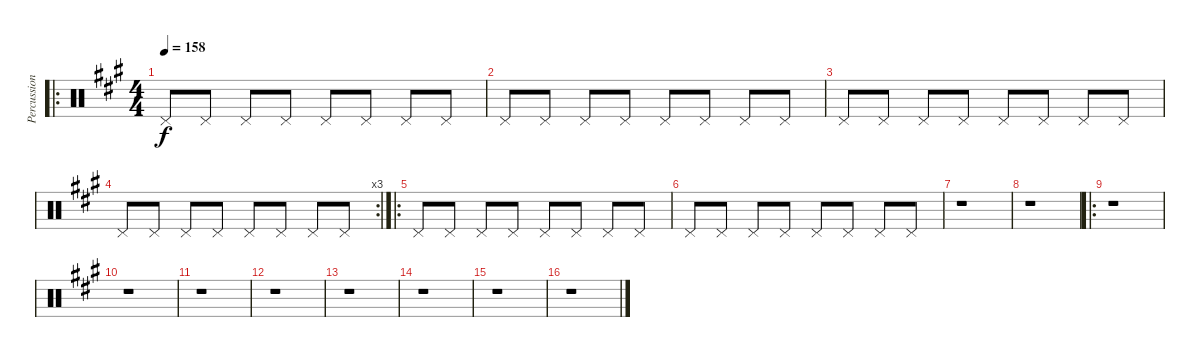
\track ("Percussion" "Percussion") {instrument percussion}
\staff {score}
\articulation defaults
\ro
\ts (4 4)
\tempo 158
\clef neutral
\ks a "Pedal Hi-Hat (hit)".8{dy f} "Pedal Hi-Hat (hit)".8 "Pedal Hi-Hat (hit)".8 "Pedal Hi-Hat (hit)".8 "Pedal Hi-Hat (hit)".8 "Pedal Hi-Hat (hit)".8 "Pedal Hi-Hat (hit)".8 "Pedal Hi-Hat (hit)".8
|
"Pedal Hi-Hat (hit)".8 "Pedal Hi-Hat (hit)".8 "Pedal Hi-Hat (hit)".8 "Pedal Hi-Hat (hit)".8 "Pedal Hi-Hat (hit)".8 "Pedal Hi-Hat (hit)".8 "Pedal Hi-Hat (hit)".8 "Pedal Hi-Hat (hit)".8 |
"Pedal Hi-Hat (hit)".8 "Pedal Hi-Hat (hit)".8 "Pedal Hi-Hat (hit)".8 "Pedal Hi-Hat (hit)".8 "Pedal Hi-Hat (hit)".8 "Pedal Hi-Hat (hit)".8 "Pedal Hi-Hat (hit)".8 "Pedal Hi-Hat (hit)".8 |
\rc 3 "Pedal Hi-Hat (hit)".8 "Pedal Hi-Hat (hit)".8 "Pedal Hi-Hat (hit)".8 "Pedal Hi-Hat (hit)".8 "Pedal Hi-Hat (hit)".8 "Pedal Hi-Hat (hit)".8 "Pedal Hi-Hat (hit)".8 "Pedal Hi-Hat (hit)".8
|
\ro "Pedal Hi-Hat (hit)".8 "Pedal Hi-Hat (hit)".8 "Pedal Hi-Hat (hit)".8 "Pedal Hi-Hat (hit)".8 "Pedal Hi-Hat (hit)".8 "Pedal Hi-Hat (hit)".8 "Pedal Hi-Hat (hit)".8 "Pedal Hi-Hat (hit)".8
|
"Pedal Hi-Hat (hit)".8 "Pedal Hi-Hat (hit)".8 "Pedal Hi-Hat (hit)".8 "Pedal Hi-Hat (hit)".8 "Pedal Hi-Hat (hit)".8 "Pedal Hi-Hat (hit)".8 "Pedal Hi-Hat (hit)".8 "Pedal Hi-Hat (hit)".8 |
r.1 |
r.1 |
\ro
r.1 |
r.1 |
r.1 |
r.1 |
r.1 |
r.1 |
r.1 |
r.1
